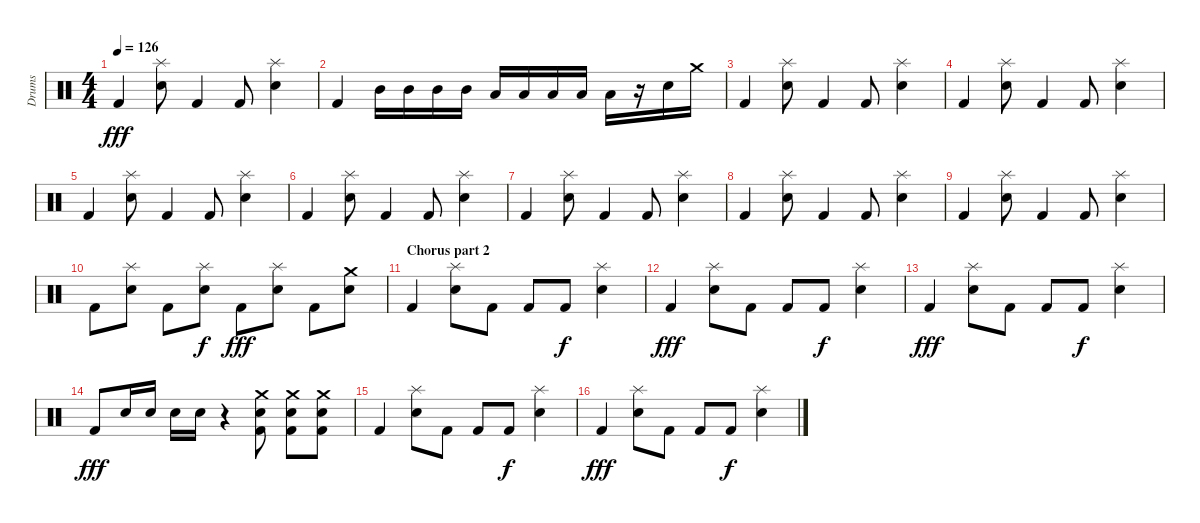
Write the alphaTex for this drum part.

\track ("Drums" "Drums") {instrument percussion}
\staff {score}
\articulation defaults
\ts (4 4)
\tempo 126
\clef neutral
\ks c "Kick (hit) 2".4{dy fff}
("Splash (hit)" "Electric Snare (hit)").8 "Kick (hit) 2".4 "Kick (hit) 2".8 ("Splash (hit)" "Electric Snare (hit)").4 |
"Kick (hit) 2".4 "Mid Tom (hit)".16 "Mid Tom (hit)".16 "Mid Tom (hit)".16 "Mid Tom (hit)".16 "Low Tom (hit)".16 "Low Tom (hit)".16 "Low Tom (hit)".16 "Low Tom (hit)".16 "Low Floor Tom (hit)".16 r.16 "Electric Snare (hit)".16 "Crash medium (hit)".16 |
"Kick (hit) 2".4 ("Splash (hit)" "Electric Snare (hit)").8 "Kick (hit) 2".4 "Kick (hit) 2".8 ("Splash (hit)" "Electric Snare (hit)").4 |
"Kick (hit) 2".4 ("Splash (hit)" "Electric Snare (hit)").8 "Kick (hit) 2".4 "Kick (hit) 2".8 ("Splash (hit)" "Electric Snare (hit)").4 |
"Kick (hit) 2".4 ("Splash (hit)" "Electric Snare (hit)").8 "Kick (hit) 2".4 "Kick (hit) 2".8 ("Splash (hit)" "Electric Snare (hit)").4 |
"Kick (hit) 2".4 ("Splash (hit)" "Electric Snare (hit)").8 "Kick (hit) 2".4 "Kick (hit) 2".8 ("Splash (hit)" "Electric Snare (hit)").4 |
"Kick (hit) 2".4 ("Splash (hit)" "Electric Snare (hit)").8 "Kick (hit) 2".4 "Kick (hit) 2".8 ("Splash (hit)" "Electric Snare (hit)").4 |
"Kick (hit) 2".4 ("Splash (hit)" "Electric Snare (hit)").8 "Kick (hit) 2".4 "Kick (hit) 2".8 ("Splash (hit)" "Electric Snare (hit)").4 |
"Kick (hit) 2".4 ("Splash (hit)" "Electric Snare (hit)").8 "Kick (hit) 2".4 "Kick (hit) 2".8 ("Splash (hit)" "Electric Snare (hit)").4 |
"Kick (hit) 2".8 ("Splash (hit)" "Electric Snare (hit)").8 "Kick (hit) 2".8 ("Splash (hit)" "Electric Snare (hit)").8{dy f} "Kick (hit) 2".8{dy fff} ("Splash (hit)" "Electric Snare (hit)").8 "Kick (hit) 2".8 ("Crash medium (hit)" "Electric Snare (hit)").8 |
\section ("" "Chorus part 2")
"Kick (hit) 2".4 ("Splash (hit)" "Electric Snare (hit)").8 "Kick (hit) 2".8 "Kick (hit) 2".8 "Kick (hit) 2".8{dy f} ("Splash (hit)" "Electric Snare (hit)").4 |
"Kick (hit) 2".4{dy fff} ("Splash (hit)" "Electric Snare (hit)").8 "Kick (hit) 2".8 "Kick (hit) 2".8 "Kick (hit) 2".8{dy f} ("Splash (hit)" "Electric Snare (hit)").4 |
"Kick (hit) 2".4{dy fff} ("Splash (hit)" "Electric Snare (hit)").8 "Kick (hit) 2".8 "Kick (hit) 2".8 "Kick (hit) 2".8{dy f} ("Splash (hit)" "Electric Snare (hit)").4 |
"Kick (hit) 2".8{dy fff} "Electric Snare (hit)".16 "Electric Snare (hit)".16 "Electric Snare (hit)".16 "Electric Snare (hit)".16 r.4 ("Crash medium (hit)" "Electric Snare (hit)" "Kick (hit) 2").8 ("Crash medium (hit)" "Electric Snare (hit)" "Kick (hit) 2").8 ("Crash medium (hit)" "Electric Snare (hit)" "Kick (hit) 2").8 |
"Kick (hit) 2".4 ("Splash (hit)" "Electric Snare (hit)").8 "Kick (hit) 2".8 "Kick (hit) 2".8 "Kick (hit) 2".8{dy f} ("Splash (hit)" "Electric Snare (hit)").4 |
"Kick (hit) 2".4{dy fff} ("Splash (hit)" "Electric Snare (hit)").8 "Kick (hit) 2".8 "Kick (hit) 2".8 "Kick (hit) 2".8{dy f} ("Splash (hit)" "Electric Snare (hit)").4
